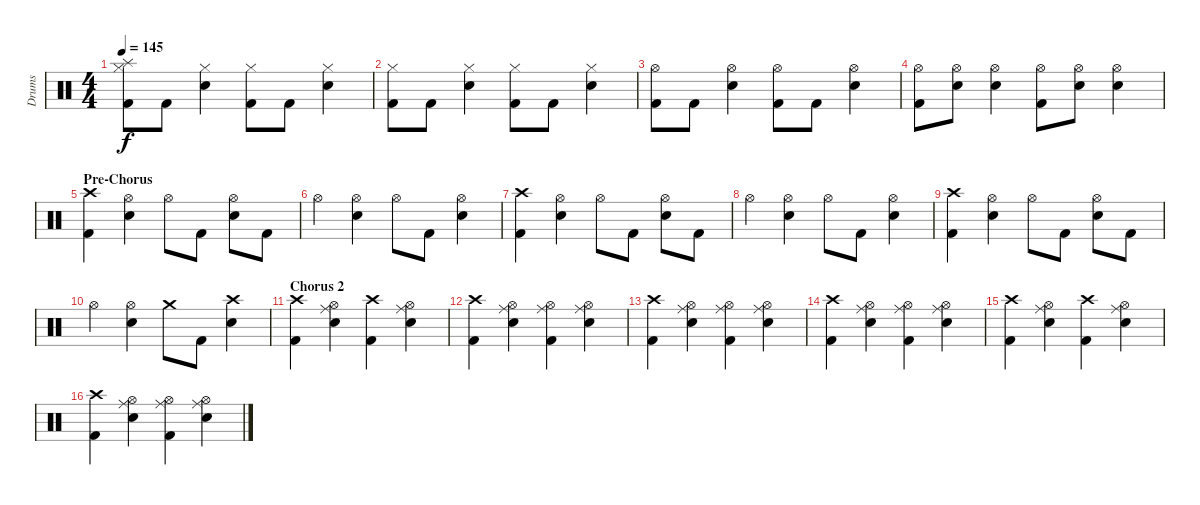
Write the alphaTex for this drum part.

\track ("Drums" "Drums") {instrument percussion}
\staff {score}
\articulation defaults
\ts (4 4)
\tempo 145
\clef neutral
\ks c
("Splash (hit)" "Hi-Hat (closed)" "Kick (hit) 2").8{dy f} "Kick (hit) 2".8 ("Hi-Hat (closed)" "Snare (hit) 2").4 ("Hi-Hat (closed)" "Kick (hit) 2").8 "Kick (hit) 2".8 ("Hi-Hat (closed)" "Snare (hit) 2").4 |
("Hi-Hat (closed)" "Kick (hit) 2").8 "Kick (hit) 2".8 ("Hi-Hat (closed)" "Snare (hit) 2").4 ("Hi-Hat (closed)" "Kick (hit) 2").8 "Kick (hit) 2".8 ("Hi-Hat (closed)" "Snare (hit) 2").4 |
("Hi-Hat (open)" "Kick (hit) 2").8 "Kick (hit) 2".8 ("Hi-Hat (open)" "Snare (hit) 2").4 ("Hi-Hat (open)" "Kick (hit) 2").8 "Kick (hit) 2".8 ("Hi-Hat (open)" "Snare (hit) 2").4 |
("Hi-Hat (open)" "Kick (hit) 2").8 ("Hi-Hat (open)" "Snare (hit) 2").8 ("Hi-Hat (open)" "Snare (hit) 2").4 ("Hi-Hat (open)" "Kick (hit) 2").8 ("Hi-Hat (open)" "Snare (hit) 2").8 ("Hi-Hat (open)" "Snare (hit) 2").4 |
\section ("" "Pre-Chorus")
("Crash high (hit)" "Kick (hit) 2").4 ("Hi-Hat (open)" "Snare (hit) 2").4 "Hi-Hat (open)".8 "Kick (hit) 2".8 ("Hi-Hat (open)" "Snare (hit) 2").8 "Kick (hit) 2".8 |
"Hi-Hat (open)".4 ("Hi-Hat (open)" "Snare (hit) 2").4 "Hi-Hat (open)".8 "Kick (hit) 2".8 ("Hi-Hat (open)" "Snare (hit) 2").4 |
("Crash high (hit)" "Kick (hit) 2").4 ("Hi-Hat (open)" "Snare (hit) 2").4 "Hi-Hat (open)".8 "Kick (hit) 2".8 ("Hi-Hat (open)" "Snare (hit) 2").8 "Kick (hit) 2".8 |
"Hi-Hat (open)".4 ("Hi-Hat (open)" "Snare (hit) 2").4 "Hi-Hat (open)".8 "Kick (hit) 2".8 ("Hi-Hat (open)" "Snare (hit) 2").4 |
("Crash high (hit)" "Kick (hit) 2").4 ("Hi-Hat (open)" "Snare (hit) 2").4 "Hi-Hat (open)".8 "Kick (hit) 2".8 ("Hi-Hat (open)" "Snare (hit) 2").8 "Kick (hit) 2".8 |
"Hi-Hat (open)".4 ("Hi-Hat (open)" "Snare (hit) 2").4 "Crash medium (hit)".8 "Kick (hit) 2".8 ("Crash high (hit)" "Snare (hit) 2").4 |
\section ("" "Chorus 2")
("Crash high (hit)" "Kick (hit) 2").4 ("Hi-Hat (open)" "Ride (middle)" "Snare (hit) 2").4 ("Crash high (hit)" "Kick (hit) 2").4 ("Hi-Hat (open)" "Ride (middle)" "Snare (hit) 2").4 |
("Crash high (hit)" "Kick (hit) 2").4 ("Hi-Hat (open)" "Ride (middle)" "Snare (hit) 2").4 ("Hi-Hat (open)" "Ride (middle)" "Kick (hit) 2").4 ("Hi-Hat (open)" "Ride (middle)" "Snare (hit) 2").4 |
("Crash high (hit)" "Kick (hit) 2").4 ("Hi-Hat (open)" "Ride (middle)" "Snare (hit) 2").4 ("Hi-Hat (open)" "Ride (middle)" "Kick (hit) 2").4 ("Hi-Hat (open)" "Ride (middle)" "Snare (hit) 2").4 |
("Crash high (hit)" "Kick (hit) 2").4 ("Hi-Hat (open)" "Ride (middle)" "Snare (hit) 2").4 ("Hi-Hat (open)" "Ride (middle)" "Kick (hit) 2").4 ("Hi-Hat (open)" "Ride (middle)" "Snare (hit) 2").4 |
("Crash high (hit)" "Kick (hit) 2").4 ("Hi-Hat (open)" "Ride (middle)" "Snare (hit) 2").4 ("Crash high (hit)" "Kick (hit) 2").4 ("Hi-Hat (open)" "Ride (middle)" "Snare (hit) 2").4 |
("Crash high (hit)" "Kick (hit) 2").4 ("Hi-Hat (open)" "Ride (middle)" "Snare (hit) 2").4 ("Hi-Hat (open)" "Ride (middle)" "Kick (hit) 2").4 ("Hi-Hat (open)" "Ride (middle)" "Snare (hit) 2").4
